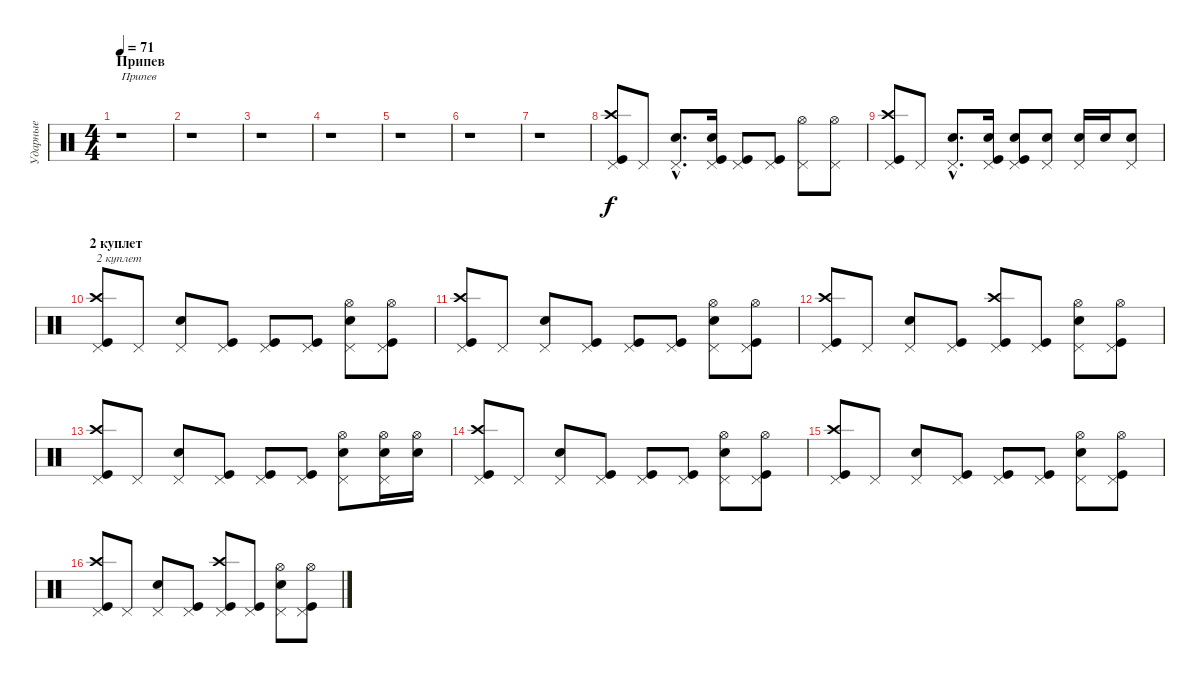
\track ("Ударные" "Ударные") {instrument percussion}
\staff {score}
\articulation defaults
\ts (4 4)
\section ("" "Припев")
\tempo 71
\clef neutral
\ks c
r.1{txt "Припев" dy f} |
r.1 |
r.1 |
r.1 |
r.1 |
r.1 |
r.1 |
("Kick (hit)" "Crash high (hit)" "Pedal Hi-Hat (hit)").8 "Pedal Hi-Hat (hit)".8 ("Snare (hit) 2"{hac} "Pedal Hi-Hat (hit)"{hac}).8{d} ("Snare (hit) 2" "Kick (hit)" "Pedal Hi-Hat (hit)").16 ("Kick (hit)" "Pedal Hi-Hat (hit)").8 ("Kick (hit)" "Pedal Hi-Hat (hit)").8 ("Hi-Hat (open)" "Pedal Hi-Hat (hit)").8 ("Hi-Hat (open)" "Pedal Hi-Hat (hit)").8 |
("Kick (hit)" "Crash high (hit)" "Pedal Hi-Hat (hit)").8 "Pedal Hi-Hat (hit)".8 ("Snare (hit) 2"{hac} "Pedal Hi-Hat (hit)"{hac}).8{d} ("Snare (hit) 2" "Kick (hit)" "Pedal Hi-Hat (hit)").16 ("Kick (hit)" "Snare (hit) 2" "Pedal Hi-Hat (hit)").8 ("Snare (hit) 2" "Pedal Hi-Hat (hit)").8 ("Snare (hit) 2" "Pedal Hi-Hat (hit)").16 "Snare (hit) 2".16 ("Snare (hit) 2" "Pedal Hi-Hat (hit)").8 |
\section ("" "2 куплет")
("Crash high (hit)" "Kick (hit)" "Pedal Hi-Hat (hit)").8{txt "2 куплет"} "Pedal Hi-Hat (hit)".8 ("Snare (hit) 2" "Pedal Hi-Hat (hit)").8 ("Kick (hit)" "Pedal Hi-Hat (hit)").8 ("Kick (hit)" "Pedal Hi-Hat (hit)").8 ("Kick (hit)" "Pedal Hi-Hat (hit)").8 ("Hi-Hat (open)" "Snare (hit) 2" "Pedal Hi-Hat (hit)").8 ("Hi-Hat (open)" "Kick (hit)" "Pedal Hi-Hat (hit)").8 |
("Crash high (hit)" "Kick (hit)" "Pedal Hi-Hat (hit)").8 "Pedal Hi-Hat (hit)".8 ("Snare (hit) 2" "Pedal Hi-Hat (hit)").8 ("Kick (hit)" "Pedal Hi-Hat (hit)").8 ("Kick (hit)" "Pedal Hi-Hat (hit)").8 ("Kick (hit)" "Pedal Hi-Hat (hit)").8 ("Hi-Hat (open)" "Snare (hit) 2" "Pedal Hi-Hat (hit)").8 ("Hi-Hat (open)" "Kick (hit)" "Pedal Hi-Hat (hit)").8 |
("Crash high (hit)" "Kick (hit)" "Pedal Hi-Hat (hit)").8 "Pedal Hi-Hat (hit)".8 ("Snare (hit) 2" "Pedal Hi-Hat (hit)").8 ("Kick (hit)" "Pedal Hi-Hat (hit)").8 ("Crash high (hit)" "Kick (hit)" "Pedal Hi-Hat (hit)").8 ("Kick (hit)" "Pedal Hi-Hat (hit)").8 ("Hi-Hat (open)" "Snare (hit) 2" "Pedal Hi-Hat (hit)").8 ("Hi-Hat (open)" "Kick (hit)" "Pedal Hi-Hat (hit)").8 |
("Crash high (hit)" "Kick (hit)" "Pedal Hi-Hat (hit)").8 "Pedal Hi-Hat (hit)".8 ("Snare (hit) 2" "Pedal Hi-Hat (hit)").8 ("Kick (hit)" "Pedal Hi-Hat (hit)").8 ("Kick (hit)" "Pedal Hi-Hat (hit)").8 ("Kick (hit)" "Pedal Hi-Hat (hit)").8 ("Hi-Hat (open)" "Snare (hit) 2" "Pedal Hi-Hat (hit)").8 ("Hi-Hat (open)" "Snare (hit) 2" "Pedal Hi-Hat (hit)").16 ("Hi-Hat (open)" "Snare (hit) 2").16 |
("Crash high (hit)" "Kick (hit)" "Pedal Hi-Hat (hit)").8 "Pedal Hi-Hat (hit)".8 ("Snare (hit) 2" "Pedal Hi-Hat (hit)").8 ("Kick (hit)" "Pedal Hi-Hat (hit)").8 ("Kick (hit)" "Pedal Hi-Hat (hit)").8 ("Kick (hit)" "Pedal Hi-Hat (hit)").8 ("Hi-Hat (open)" "Snare (hit) 2" "Pedal Hi-Hat (hit)").8 ("Hi-Hat (open)" "Kick (hit)" "Pedal Hi-Hat (hit)").8 |
("Crash high (hit)" "Kick (hit)" "Pedal Hi-Hat (hit)").8 "Pedal Hi-Hat (hit)".8 ("Snare (hit) 2" "Pedal Hi-Hat (hit)").8 ("Kick (hit)" "Pedal Hi-Hat (hit)").8 ("Kick (hit)" "Pedal Hi-Hat (hit)").8 ("Kick (hit)" "Pedal Hi-Hat (hit)").8 ("Hi-Hat (open)" "Snare (hit) 2" "Pedal Hi-Hat (hit)").8 ("Hi-Hat (open)" "Kick (hit)" "Pedal Hi-Hat (hit)").8 |
("Crash high (hit)" "Kick (hit)" "Pedal Hi-Hat (hit)").8 "Pedal Hi-Hat (hit)".8 ("Snare (hit) 2" "Pedal Hi-Hat (hit)").8 ("Kick (hit)" "Pedal Hi-Hat (hit)").8 ("Crash high (hit)" "Kick (hit)" "Pedal Hi-Hat (hit)").8 ("Kick (hit)" "Pedal Hi-Hat (hit)").8 ("Hi-Hat (open)" "Snare (hit) 2" "Pedal Hi-Hat (hit)").8 ("Hi-Hat (open)" "Kick (hit)" "Pedal Hi-Hat (hit)").8
